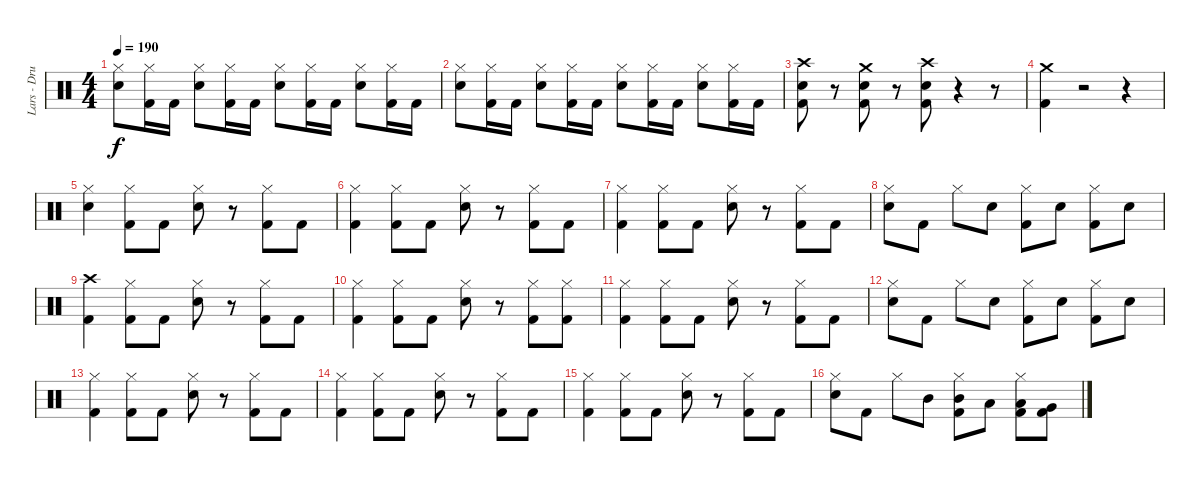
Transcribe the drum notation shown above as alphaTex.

\track ("Lars - Drums" "Lars - Dru") {instrument percussion}
\staff {score}
\articulation defaults
\ts (4 4)
\tempo 190
\clef neutral
\ks c
("Snare (hit) 2" "Hi-Hat (closed)").8{dy f} ("Kick (hit) 2" "Hi-Hat (closed)").16 "Kick (hit) 2".16 ("Snare (hit) 2" "Hi-Hat (closed)").8 ("Kick (hit) 2" "Hi-Hat (closed)").16 "Kick (hit) 2".16 ("Snare (hit) 2" "Hi-Hat (closed)").8 ("Kick (hit) 2" "Hi-Hat (closed)").16 "Kick (hit) 2".16 ("Snare (hit) 2" "Hi-Hat (closed)").8 ("Kick (hit) 2" "Hi-Hat (closed)").16 "Kick (hit) 2".16 |
("Snare (hit) 2" "Hi-Hat (closed)").8 ("Kick (hit) 2" "Hi-Hat (closed)").16 "Kick (hit) 2".16 ("Snare (hit) 2" "Hi-Hat (closed)").8 ("Kick (hit) 2" "Hi-Hat (closed)").16 "Kick (hit) 2".16 ("Snare (hit) 2" "Hi-Hat (closed)").8 ("Kick (hit) 2" "Hi-Hat (closed)").16 "Kick (hit) 2".16 ("Snare (hit) 2" "Hi-Hat (closed)").8 ("Kick (hit) 2" "Hi-Hat (closed)").16 "Kick (hit) 2".16 |
("Crash high (hit)" "Kick (hit) 2" "Snare (hit) 2").8 r.8 ("Crash medium (hit)" "Kick (hit) 2" "Snare (hit) 2").8 r.8 ("Crash high (hit)" "Kick (hit) 2" "Snare (hit) 2").8 r.4 r.8 |
("Kick (hit) 2" "Crash medium (hit)").4 r.2 r.4 |
("Snare (hit) 2" "Hi-Hat (closed)").4 ("Kick (hit) 2" "Hi-Hat (closed)").8 "Kick (hit) 2".8 ("Snare (hit) 2" "Hi-Hat (closed)").8 r.8 ("Kick (hit) 2" "Hi-Hat (closed)").8 "Kick (hit) 2".8 |
("Kick (hit) 2" "Hi-Hat (closed)").4 ("Kick (hit) 2" "Hi-Hat (closed)").8 "Kick (hit) 2".8 ("Snare (hit) 2" "Hi-Hat (closed)").8 r.8 ("Kick (hit) 2" "Hi-Hat (closed)").8 "Kick (hit) 2".8 |
("Kick (hit) 2" "Hi-Hat (closed)").4 ("Kick (hit) 2" "Hi-Hat (closed)").8 "Kick (hit) 2".8 ("Snare (hit) 2" "Hi-Hat (closed)").8 r.8 ("Kick (hit) 2" "Hi-Hat (closed)").8 "Kick (hit) 2".8 |
("Snare (hit) 2" "Hi-Hat (closed)").8 "Kick (hit) 2".8 "Hi-Hat (closed)".8 "Snare (hit) 2".8 ("Kick (hit) 2" "Hi-Hat (closed)").8 "Snare (hit) 2".8 ("Kick (hit) 2" "Hi-Hat (closed)").8 "Snare (hit) 2".8 |
("Kick (hit) 2" "Crash high (hit)").4 ("Kick (hit) 2" "Hi-Hat (closed)").8 "Kick (hit) 2".8 ("Snare (hit) 2" "Hi-Hat (closed)").8 r.8 ("Kick (hit) 2" "Hi-Hat (closed)").8 "Kick (hit) 2".8 |
("Kick (hit) 2" "Hi-Hat (closed)").4 ("Kick (hit) 2" "Hi-Hat (closed)").8 "Kick (hit) 2".8 ("Snare (hit) 2" "Hi-Hat (closed)").8 r.8 ("Kick (hit) 2" "Hi-Hat (closed)").8 ("Kick (hit) 2" "Hi-Hat (closed)").8 |
("Kick (hit) 2" "Hi-Hat (closed)").4 ("Kick (hit) 2" "Hi-Hat (closed)").8 "Kick (hit) 2".8 ("Snare (hit) 2" "Hi-Hat (closed)").8 r.8 ("Kick (hit) 2" "Hi-Hat (closed)").8 "Kick (hit) 2".8 |
("Snare (hit) 2" "Hi-Hat (closed)").8 "Kick (hit) 2".8 "Hi-Hat (closed)".8 "Snare (hit) 2".8 ("Kick (hit) 2" "Hi-Hat (closed)").8 "Snare (hit) 2".8 ("Kick (hit) 2" "Hi-Hat (closed)").8 "Snare (hit) 2".8 |
("Kick (hit) 2" "Hi-Hat (closed)").4 ("Kick (hit) 2" "Hi-Hat (closed)").8 "Kick (hit) 2".8 ("Snare (hit) 2" "Hi-Hat (closed)").8 r.8 ("Kick (hit) 2" "Hi-Hat (closed)").8 "Kick (hit) 2".8 |
("Kick (hit) 2" "Hi-Hat (closed)").4 ("Kick (hit) 2" "Hi-Hat (closed)").8 "Kick (hit) 2".8 ("Snare (hit) 2" "Hi-Hat (closed)").8 r.8 ("Kick (hit) 2" "Hi-Hat (closed)").8 "Kick (hit) 2".8 |
("Kick (hit) 2" "Hi-Hat (closed)").4 ("Kick (hit) 2" "Hi-Hat (closed)").8 "Kick (hit) 2".8 ("Snare (hit) 2" "Hi-Hat (closed)").8 r.8 ("Kick (hit) 2" "Hi-Hat (closed)").8 "Kick (hit) 2".8 |
("Snare (hit) 2" "Hi-Hat (closed)").8 "Kick (hit) 2".8 "Hi-Hat (closed)".8 "Mid Tom (hit)".8 ("Kick (hit) 2" "Hi-Hat (closed)" "Mid Tom (hit)").8 "Low Tom (hit)".8 ("Kick (hit) 2" "Hi-Hat (closed)" "Low Tom (hit)").8 ("Kick (hit) 2" "Very Low Tom (hit)").8
